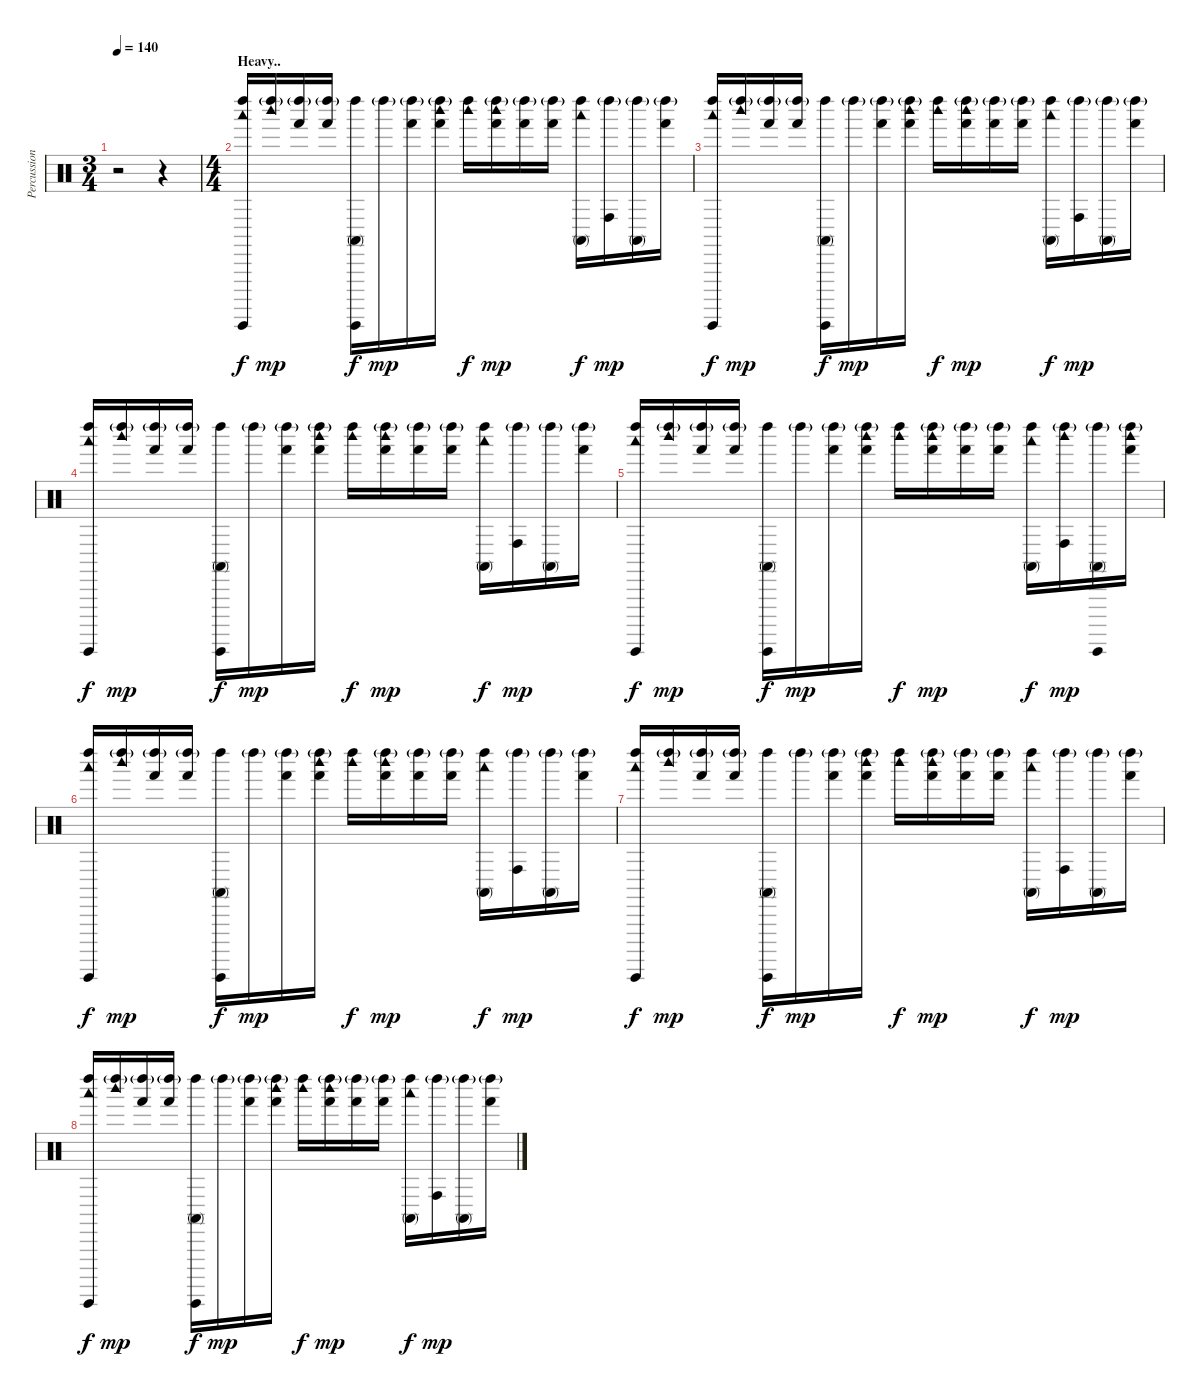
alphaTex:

\track ("Percussions" "Percussion") {instrument percussion}
\staff {score}
\articulation defaults
\ts (3 4)
\tempo 140
\clef neutral
\ks c
r.2{dy f} r.4 |
\ts (4 4)
\section ("" "Heavy..")
("Left Maraca (hit)" "Woodblock low (hit)" "Guiro (hit)").16 ("Left Maraca (hit)"{g} "Woodblock high (hit)").16{dy mp} ("Left Maraca (hit)"{g} "Hand (hit)").16 ("Left Maraca (hit)"{g} "Hand (hit)").16 ("Left Maraca (hit)" "Guiro (hit)" "Conga high (mute)").16{dy f} "Left Maraca (hit)"{g}.16{dy mp} ("Left Maraca (hit)"{g} "Hand (hit)").16 ("Left Maraca (hit)"{g} "Woodblock high (hit)" "Hand (hit)").16 ("Left Maraca (hit)" "Woodblock high (hit)").16{dy f} ("Left Maraca (hit)"{g} "Woodblock high (hit)" "Hand (hit)").16{dy mp} ("Left Maraca (hit)"{g} "Hand (hit)").16 ("Left Maraca (hit)"{g} "Hand (hit)").16 ("Left Maraca (hit)" "Woodblock low (hit)" "Conga high (mute)").16{dy f} ("Left Maraca (hit)"{g} "Conga high (hit)").16{dy mp} ("Left Maraca (hit)"{g} "Conga high (mute)").16 ("Left Maraca (hit)"{g} "Hand (hit)").16 |
("Left Maraca (hit)" "Woodblock low (hit)" "Guiro (hit)").16{dy f} ("Left Maraca (hit)"{g} "Woodblock high (hit)").16{dy mp} ("Left Maraca (hit)"{g} "Hand (hit)").16 ("Left Maraca (hit)"{g} "Hand (hit)").16 ("Left Maraca (hit)" "Guiro (hit)" "Conga high (mute)").16{dy f} "Left Maraca (hit)"{g}.16{dy mp} ("Left Maraca (hit)"{g} "Hand (hit)").16 ("Left Maraca (hit)"{g} "Woodblock high (hit)" "Hand (hit)").16 ("Left Maraca (hit)" "Woodblock high (hit)").16{dy f} ("Left Maraca (hit)"{g} "Woodblock high (hit)" "Hand (hit)").16{dy mp} ("Left Maraca (hit)"{g} "Hand (hit)").16 ("Left Maraca (hit)"{g} "Hand (hit)").16 ("Left Maraca (hit)" "Woodblock low (hit)" "Conga high (mute)").16{dy f} ("Left Maraca (hit)"{g} "Conga high (hit)").16{dy mp} ("Left Maraca (hit)"{g} "Conga high (mute)").16 ("Left Maraca (hit)"{g} "Hand (hit)").16 |
("Left Maraca (hit)" "Woodblock low (hit)" "Guiro (hit)").16{dy f} ("Left Maraca (hit)"{g} "Woodblock high (hit)").16{dy mp} ("Left Maraca (hit)"{g} "Hand (hit)").16 ("Left Maraca (hit)"{g} "Hand (hit)").16 ("Left Maraca (hit)" "Guiro (hit)" "Conga high (mute)").16{dy f} "Left Maraca (hit)"{g}.16{dy mp} ("Left Maraca (hit)"{g} "Hand (hit)").16 ("Left Maraca (hit)"{g} "Woodblock high (hit)" "Hand (hit)").16 ("Left Maraca (hit)" "Woodblock high (hit)").16{dy f} ("Left Maraca (hit)"{g} "Woodblock high (hit)" "Hand (hit)").16{dy mp} ("Left Maraca (hit)"{g} "Hand (hit)").16 ("Left Maraca (hit)"{g} "Hand (hit)").16 ("Left Maraca (hit)" "Woodblock low (hit)" "Conga high (mute)").16{dy f} ("Left Maraca (hit)"{g} "Conga high (hit)").16{dy mp} ("Left Maraca (hit)"{g} "Conga high (mute)").16 ("Left Maraca (hit)"{g} "Hand (hit)").16 |
("Left Maraca (hit)" "Woodblock low (hit)" "Guiro (hit)").16{dy f} ("Left Maraca (hit)"{g} "Woodblock high (hit)").16{dy mp} ("Left Maraca (hit)"{g} "Hand (hit)").16 ("Left Maraca (hit)"{g} "Hand (hit)").16 ("Left Maraca (hit)" "Guiro (hit)" "Conga high (mute)").16{dy f} "Left Maraca (hit)"{g}.16{dy mp} ("Left Maraca (hit)"{g} "Hand (hit)").16 ("Left Maraca (hit)"{g} "Woodblock high (hit)" "Hand (hit)").16 ("Left Maraca (hit)" "Woodblock high (hit)").16{dy f} ("Left Maraca (hit)"{g} "Woodblock high (hit)" "Hand (hit)").16{dy mp} ("Left Maraca (hit)"{g} "Hand (hit)").16 ("Left Maraca (hit)"{g} "Hand (hit)").16 ("Left Maraca (hit)" "Woodblock low (hit)" "Conga high (mute)").16{dy f} ("Left Maraca (hit)"{g} "Woodblock high (hit)" "Conga high (hit)").16{dy mp} ("Left Maraca (hit)"{g} "Guiro (hit)" "Conga high (mute)").16 ("Left Maraca (hit)"{g} "Woodblock high (hit)" "Hand (hit)").16 |
("Left Maraca (hit)" "Woodblock low (hit)" "Guiro (hit)").16{dy f} ("Left Maraca (hit)"{g} "Woodblock high (hit)").16{dy mp} ("Left Maraca (hit)"{g} "Hand (hit)").16 ("Left Maraca (hit)"{g} "Hand (hit)").16 ("Left Maraca (hit)" "Guiro (hit)" "Conga high (mute)").16{dy f} "Left Maraca (hit)"{g}.16{dy mp} ("Left Maraca (hit)"{g} "Hand (hit)").16 ("Left Maraca (hit)"{g} "Woodblock high (hit)" "Hand (hit)").16 ("Left Maraca (hit)" "Woodblock high (hit)").16{dy f} ("Left Maraca (hit)"{g} "Woodblock high (hit)" "Hand (hit)").16{dy mp} ("Left Maraca (hit)"{g} "Hand (hit)").16 ("Left Maraca (hit)"{g} "Hand (hit)").16 ("Left Maraca (hit)" "Woodblock low (hit)" "Conga high (mute)").16{dy f} ("Left Maraca (hit)"{g} "Conga high (hit)").16{dy mp} ("Left Maraca (hit)"{g} "Conga high (mute)").16 ("Left Maraca (hit)"{g} "Hand (hit)").16 |
("Left Maraca (hit)" "Woodblock low (hit)" "Guiro (hit)").16{dy f} ("Left Maraca (hit)"{g} "Woodblock high (hit)").16{dy mp} ("Left Maraca (hit)"{g} "Hand (hit)").16 ("Left Maraca (hit)"{g} "Hand (hit)").16 ("Left Maraca (hit)" "Guiro (hit)" "Conga high (mute)").16{dy f} "Left Maraca (hit)"{g}.16{dy mp} ("Left Maraca (hit)"{g} "Hand (hit)").16 ("Left Maraca (hit)"{g} "Woodblock high (hit)" "Hand (hit)").16 ("Left Maraca (hit)" "Woodblock high (hit)").16{dy f} ("Left Maraca (hit)"{g} "Woodblock high (hit)" "Hand (hit)").16{dy mp} ("Left Maraca (hit)"{g} "Hand (hit)").16 ("Left Maraca (hit)"{g} "Hand (hit)").16 ("Left Maraca (hit)" "Woodblock low (hit)" "Conga high (mute)").16{dy f} ("Left Maraca (hit)"{g} "Conga high (hit)").16{dy mp} ("Left Maraca (hit)"{g} "Conga high (mute)").16 ("Left Maraca (hit)"{g} "Hand (hit)").16 |
("Left Maraca (hit)" "Woodblock low (hit)" "Guiro (hit)").16{dy f} ("Left Maraca (hit)"{g} "Woodblock high (hit)").16{dy mp} ("Left Maraca (hit)"{g} "Hand (hit)").16 ("Left Maraca (hit)"{g} "Hand (hit)").16 ("Left Maraca (hit)" "Guiro (hit)" "Conga high (mute)").16{dy f} "Left Maraca (hit)"{g}.16{dy mp} ("Left Maraca (hit)"{g} "Hand (hit)").16 ("Left Maraca (hit)"{g} "Woodblock high (hit)" "Hand (hit)").16 ("Left Maraca (hit)" "Woodblock high (hit)").16{dy f} ("Left Maraca (hit)"{g} "Woodblock high (hit)" "Hand (hit)").16{dy mp} ("Left Maraca (hit)"{g} "Hand (hit)").16 ("Left Maraca (hit)"{g} "Hand (hit)").16 ("Left Maraca (hit)" "Woodblock low (hit)" "Conga high (mute)").16{dy f} ("Left Maraca (hit)"{g} "Conga high (hit)").16{dy mp} ("Left Maraca (hit)"{g} "Conga high (mute)").16 ("Left Maraca (hit)"{g} "Hand (hit)").16
